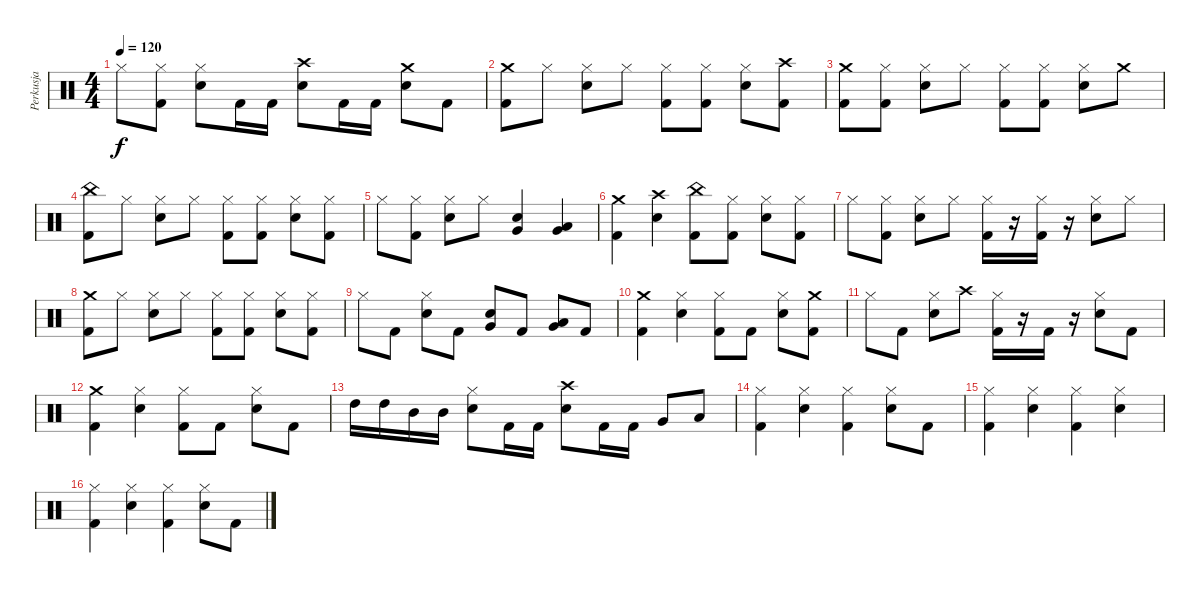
\track ("Perkusja" "Perkusja") {instrument percussion}
\staff {score}
\articulation defaults
\ts (4 4)
\tempo 120
\clef neutral
\ks c "Hi-Hat (closed)".8{dy f}
("Hi-Hat (closed)" "Kick (hit) 2").8 ("Hi-Hat (closed)" "Snare (hit) 2").8 "Kick (hit) 2".16 "Kick (hit) 2".16 ("Crash high (hit)" "Snare (hit) 2").8 "Kick (hit) 2".16 "Kick (hit) 2".16 ("Crash medium (hit)" "Snare (hit) 2").8 "Kick (hit) 2".8 |
("Kick (hit) 2" "Crash medium (hit)").8 "Hi-Hat (closed)".8 ("Hi-Hat (closed)" "Snare (hit) 2").8 "Hi-Hat (closed)".8 ("Hi-Hat (closed)" "Kick (hit) 2").8 ("Hi-Hat (closed)" "Kick (hit) 2").8 ("Hi-Hat (closed)" "Snare (hit) 2").8 ("Crash high (hit)" "Kick (hit) 2").8 |
("Crash medium (hit)" "Kick (hit) 2").8 ("Hi-Hat (closed)" "Kick (hit) 2").8 ("Hi-Hat (closed)" "Snare (hit) 2").8 "Hi-Hat (closed)".8 ("Hi-Hat (closed)" "Kick (hit) 2").8 ("Hi-Hat (closed)" "Kick (hit) 2").8 ("Hi-Hat (closed)" "Snare (hit) 2").8 "Crash medium (hit)".8 |
("China (hit)" "Kick (hit) 2").8 "Hi-Hat (closed)".8 ("Hi-Hat (closed)" "Snare (hit) 2").8 "Hi-Hat (closed)".8 ("Hi-Hat (closed)" "Kick (hit) 2").8 ("Hi-Hat (closed)" "Kick (hit) 2").8 ("Hi-Hat (closed)" "Snare (hit) 2").8 ("Hi-Hat (closed)" "Kick (hit) 2").8 |
"Hi-Hat (closed)".8 ("Hi-Hat (closed)" "Kick (hit) 2").8 ("Hi-Hat (closed)" "Snare (hit) 2").8 "Hi-Hat (closed)".8 ("Snare (hit) 2" "Very Low Tom (hit)").4 ("Very Low Tom (hit)" "Low Floor Tom (hit)").4 |
("Kick (hit) 2" "Crash medium (hit)").4 ("Crash high (hit)" "Snare (hit) 2").4 ("China (hit)" "Kick (hit) 2").8 ("Hi-Hat (closed)" "Kick (hit) 2").8 ("Hi-Hat (closed)" "Snare (hit) 2").8 ("Hi-Hat (closed)" "Kick (hit) 2").8 |
"Hi-Hat (closed)".8 ("Hi-Hat (closed)" "Kick (hit) 2").8 ("Hi-Hat (closed)" "Snare (hit) 2").8 "Hi-Hat (closed)".8 ("Hi-Hat (closed)" "Kick (hit) 2").16 r.16 ("Hi-Hat (closed)" "Kick (hit) 2").16 r.16 ("Hi-Hat (closed)" "Snare (hit) 2").8 "Hi-Hat (closed)".8 |
("Crash medium (hit)" "Kick (hit) 2").8 "Hi-Hat (closed)".8 ("Hi-Hat (closed)" "Snare (hit) 2").8 "Hi-Hat (closed)".8 ("Hi-Hat (closed)" "Kick (hit) 2").8 ("Hi-Hat (closed)" "Kick (hit) 2").8 ("Hi-Hat (closed)" "Snare (hit) 2").8 ("Hi-Hat (closed)" "Kick (hit) 2").8 |
"Hi-Hat (closed)".8 "Kick (hit) 2".8 ("Hi-Hat (closed)" "Snare (hit) 2").8 "Kick (hit) 2".8 ("Snare (hit) 2" "Very Low Tom (hit)").8 "Kick (hit) 2".8 ("Very Low Tom (hit)" "Low Floor Tom (hit)").8 "Kick (hit) 2".8 |
("Kick (hit) 2" "Crash medium (hit)").4 ("Hi-Hat (closed)" "Snare (hit) 2").4 ("Hi-Hat (closed)" "Kick (hit) 2").8 "Kick (hit) 2".8 ("Hi-Hat (closed)" "Snare (hit) 2").8 ("Crash medium (hit)" "Kick (hit) 2").8 |
"Hi-Hat (closed)".8 "Kick (hit) 2".8 ("Hi-Hat (closed)" "Snare (hit) 2").8 "Crash high (hit)".8 ("Hi-Hat (closed)" "Kick (hit) 2").16 r.16 "Kick (hit) 2".16 r.16 ("Hi-Hat (closed)" "Snare (hit) 2").8 "Kick (hit) 2".8 |
("Crash medium (hit)" "Kick (hit) 2").4 ("Hi-Hat (closed)" "Snare (hit) 2").4 ("Hi-Hat (closed)" "Kick (hit) 2").8 "Kick (hit) 2".8 ("Hi-Hat (closed)" "Snare (hit) 2").8 "Kick (hit) 2".8 |
"High Tom (hit)".16 "High Tom (hit)".16 "Mid Tom (hit)".16 "Mid Tom (hit)".16 ("Hi-Hat (closed)" "Snare (hit) 2").8 "Kick (hit) 2".16 "Kick (hit) 2".16 ("Crash high (hit)" "Snare (hit) 2").8 "Kick (hit) 2".16 "Kick (hit) 2".16 "Very Low Tom (hit)".8 "Low Floor Tom (hit)".8 |
("Hi-Hat (closed)" "Kick (hit) 2").4 ("Hi-Hat (closed)" "Snare (hit) 2").4 ("Hi-Hat (closed)" "Kick (hit) 2").4 ("Hi-Hat (closed)" "Snare (hit) 2").8 "Kick (hit) 2".8 |
("Hi-Hat (closed)" "Kick (hit) 2").4 ("Hi-Hat (closed)" "Snare (hit) 2").4 ("Hi-Hat (closed)" "Kick (hit) 2").4 ("Hi-Hat (closed)" "Snare (hit) 2").4 |
("Hi-Hat (closed)" "Kick (hit) 2").4 ("Hi-Hat (closed)" "Snare (hit) 2").4 ("Hi-Hat (closed)" "Kick (hit) 2").4 ("Hi-Hat (closed)" "Snare (hit) 2").8 "Kick (hit) 2".8
